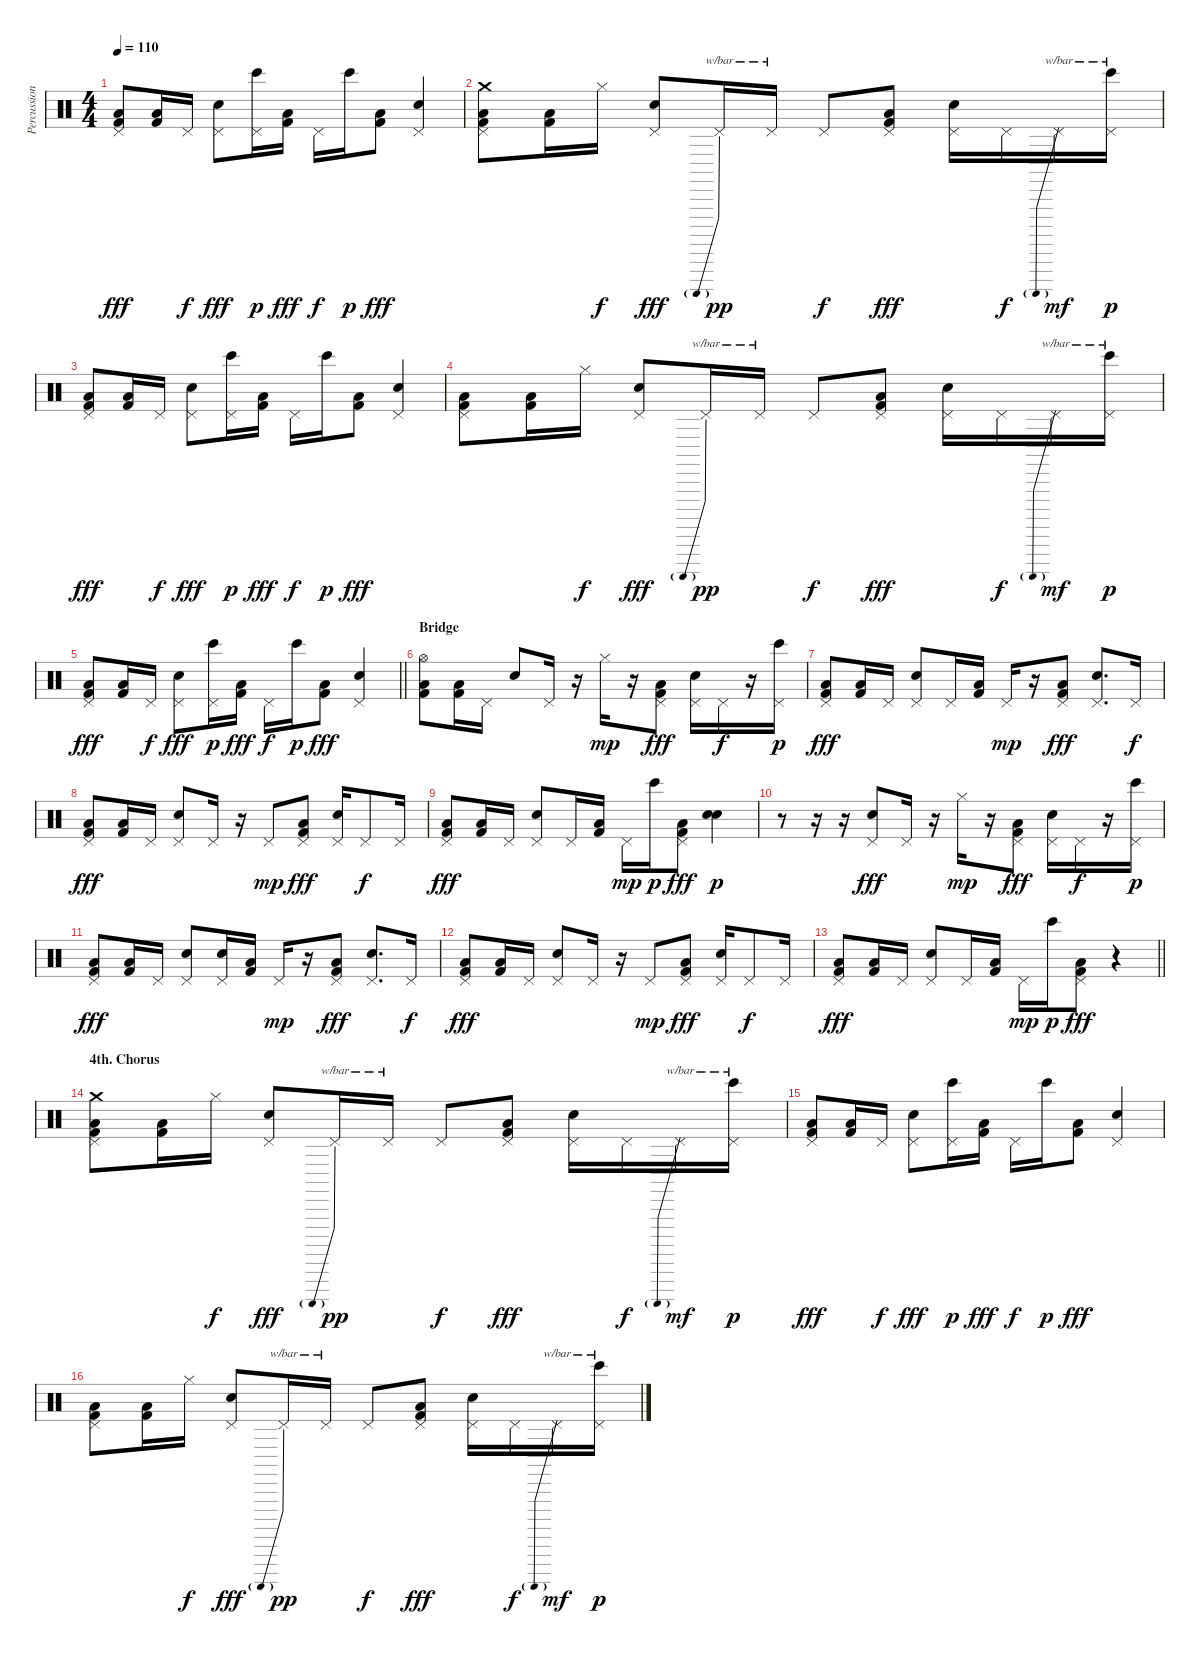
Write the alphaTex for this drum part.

\track ("Percussion" "Percussion") {instrument percussion}
\staff {score}
\articulation defaults
\ts (4 4)
\tempo 110
\clef neutral
\ks c
("Pedal Hi-Hat (hit)" "Kick (hit) 2" "Low Floor Tom (hit)"{be (hold 0 0 60 0)}).8{dy fff} ("Kick (hit) 2" "Low Floor Tom (hit)"{be (hold 0 0 60 0)}).16 "Pedal Hi-Hat (hit)".16{dy f} ("Pedal Hi-Hat (hit)" "Hand Clap (hit)").8{dy fff} ("Pedal Hi-Hat (hit)" "Bongo High (hit)").16{dy p} ("Kick (hit) 2" "Low Floor Tom (hit)"{be (hold 0 0 60 0)}).16{dy fff} "Pedal Hi-Hat (hit)".16{dy f} "Bongo High (hit)".16{dy p} ("Kick (hit) 2" "Low Floor Tom (hit)"{be (hold 0 0 60 0)}).8{dy fff} ("Pedal Hi-Hat (hit)" "Hand Clap (hit)").4 |
("Crash medium (hit)" "Pedal Hi-Hat (hit)" "Kick (hit) 2" "Low Floor Tom (hit)"{be (hold 0 0 60 0)}).8 ("Kick (hit) 2" "Low Floor Tom (hit)"{be (hold 0 0 60 0)}).16 "Hi-Hat (closed)".16{dy f} ("Pedal Hi-Hat (hit)" "Hand Clap (hit)").8{dy fff} "Pedal Hi-Hat (hit)".16{tbe (predive default 0 -24 60 -24) dy pp} "Pedal Hi-Hat (hit)".16{tbe (hold default 0 -14 60 -14)} "Pedal Hi-Hat (hit)".8{dy f} ("Pedal Hi-Hat (hit)" "Kick (hit) 2" "Low Floor Tom (hit)"{be (hold 0 0 60 0)}).8{dy fff} ("Pedal Hi-Hat (hit)" "Hand Clap (hit)").16 "Pedal Hi-Hat (hit)".16{dy f} "Pedal Hi-Hat (hit)".16{tbe (predive default 0 -24 60 -24) dy mf} ("Pedal Hi-Hat (hit)" "Bongo High (hit)").16{tbe (hold default 0 -14 60 -14) dy p} |
("Pedal Hi-Hat (hit)" "Kick (hit) 2" "Low Floor Tom (hit)"{be (hold 0 0 60 0)}).8{dy fff} ("Kick (hit) 2" "Low Floor Tom (hit)"{be (hold 0 0 60 0)}).16 "Pedal Hi-Hat (hit)".16{dy f} ("Pedal Hi-Hat (hit)" "Hand Clap (hit)").8{dy fff} ("Pedal Hi-Hat (hit)" "Bongo High (hit)").16{dy p} ("Kick (hit) 2" "Low Floor Tom (hit)"{be (hold 0 0 60 0)}).16{dy fff} "Pedal Hi-Hat (hit)".16{dy f} "Bongo High (hit)".16{dy p} ("Kick (hit) 2" "Low Floor Tom (hit)"{be (hold 0 0 60 0)}).8{dy fff} ("Pedal Hi-Hat (hit)" "Hand Clap (hit)").4 |
("Pedal Hi-Hat (hit)" "Kick (hit) 2" "Low Floor Tom (hit)"{be (hold 0 0 60 0)}).8 ("Kick (hit) 2" "Low Floor Tom (hit)"{be (hold 0 0 60 0)}).16 "Hi-Hat (closed)".16{dy f} ("Pedal Hi-Hat (hit)" "Hand Clap (hit)").8{dy fff} "Pedal Hi-Hat (hit)".16{tbe (predive default 0 -24 60 -24) dy pp} "Pedal Hi-Hat (hit)".16{tbe (hold default 0 -14 60 -14)} "Pedal Hi-Hat (hit)".8{dy f} ("Pedal Hi-Hat (hit)" "Kick (hit) 2" "Low Floor Tom (hit)"{be (hold 0 0 60 0)}).8{dy fff} ("Pedal Hi-Hat (hit)" "Hand Clap (hit)").16 "Pedal Hi-Hat (hit)".16{dy f} "Pedal Hi-Hat (hit)".16{tbe (predive default 0 -24 60 -24) dy mf} ("Pedal Hi-Hat (hit)" "Bongo High (hit)").16{tbe (hold default 0 -14 60 -14) dy p} |
\barLineRight lightlight
("Pedal Hi-Hat (hit)" "Kick (hit) 2" "Low Floor Tom (hit)"{be (hold 0 0 60 0)}).8{dy fff} ("Kick (hit) 2" "Low Floor Tom (hit)"{be (hold 0 0 60 0)}).16 "Pedal Hi-Hat (hit)".16{dy f} ("Pedal Hi-Hat (hit)" "Hand Clap (hit)").8{dy fff} ("Pedal Hi-Hat (hit)" "Bongo High (hit)").16{dy p} ("Kick (hit) 2" "Low Floor Tom (hit)"{be (hold 0 0 60 0)}).16{dy fff} "Pedal Hi-Hat (hit)".16{dy f} "Bongo High (hit)".16{dy p} ("Kick (hit) 2" "Low Floor Tom (hit)"{be (hold 0 0 60 0)}).8{dy fff} ("Pedal Hi-Hat (hit)" "Hand Clap (hit)").4 |
\section ("" "Bridge")
("Hi-Hat (open)" "Kick (hit) 2" "Low Floor Tom (hit)"{be (hold 0 0 60 0)}).8 ("Kick (hit) 2" "Low Floor Tom (hit)"{be (hold 0 0 60 0)}).16 "Pedal Hi-Hat (hit)".16 "Hand Clap (hit)".8 "Pedal Hi-Hat (hit)".16 r.16 "Hi-Hat (closed)".16{dy mp} r.16 ("Pedal Hi-Hat (hit)" "Kick (hit) 2" "Low Floor Tom (hit)"{be (hold 0 0 60 0)}).8{dy fff} ("Pedal Hi-Hat (hit)" "Hand Clap (hit)").16 "Pedal Hi-Hat (hit)".16{dy f} r.16 ("Pedal Hi-Hat (hit)" "Bongo High (hit)").16{dy p} |
("Pedal Hi-Hat (hit)" "Kick (hit) 2" "Low Floor Tom (hit)"{be (hold 0 0 60 0)}).8{dy fff} ("Kick (hit) 2" "Low Floor Tom (hit)"{be (hold 0 0 60 0)}).16 "Pedal Hi-Hat (hit)".16 ("Pedal Hi-Hat (hit)" "Hand Clap (hit)").8 "Pedal Hi-Hat (hit)".16 ("Kick (hit) 2" "Low Floor Tom (hit)"{be (hold 0 0 60 0)}).16 "Pedal Hi-Hat (hit)".16{dy mp} r.16 ("Pedal Hi-Hat (hit)" "Kick (hit) 2" "Low Floor Tom (hit)"{be (hold 0 0 60 0)}).8{dy fff} ("Pedal Hi-Hat (hit)" "Hand Clap (hit)").8{d} "Pedal Hi-Hat (hit)".16{dy f} |
("Pedal Hi-Hat (hit)" "Kick (hit) 2" "Low Floor Tom (hit)"{be (hold 0 0 60 0)}).8{dy fff} ("Kick (hit) 2" "Low Floor Tom (hit)"{be (hold 0 0 60 0)}).16 "Pedal Hi-Hat (hit)".16 ("Pedal Hi-Hat (hit)" "Hand Clap (hit)").8 "Pedal Hi-Hat (hit)".16 r.16 "Pedal Hi-Hat (hit)".8{dy mp} ("Pedal Hi-Hat (hit)" "Kick (hit) 2" "Low Floor Tom (hit)"{be (hold 0 0 60 0)}).8{dy fff} ("Pedal Hi-Hat (hit)" "Hand Clap (hit)").16 "Pedal Hi-Hat (hit)".8{dy f} "Pedal Hi-Hat (hit)".16 |
("Pedal Hi-Hat (hit)" "Kick (hit) 2" "Low Floor Tom (hit)"{be (hold 0 0 60 0)}).8{dy fff} ("Kick (hit) 2" "Low Floor Tom (hit)"{be (hold 0 0 60 0)}).16 "Pedal Hi-Hat (hit)".16 ("Pedal Hi-Hat (hit)" "Hand Clap (hit)").8 "Pedal Hi-Hat (hit)".16 ("Kick (hit) 2" "Low Floor Tom (hit)"{be (hold 0 0 60 0)}).16 "Pedal Hi-Hat (hit)".16{dy mp} "Bongo High (hit)".16{dy p} ("Pedal Hi-Hat (hit)" "Kick (hit) 2" "Low Floor Tom (hit)"{be (hold 0 0 60 0)}).8{dy fff} ("Hand Clap (hit)" "Electric Snare (hit)").4{dy p} |
r.8 r.16 r.16 ("Pedal Hi-Hat (hit)" "Hand Clap (hit)").8{dy fff} "Pedal Hi-Hat (hit)".16 r.16 "Hi-Hat (closed)".16{dy mp} r.16 ("Pedal Hi-Hat (hit)" "Kick (hit) 2" "Low Floor Tom (hit)"{be (hold 0 0 60 0)}).8{dy fff} ("Pedal Hi-Hat (hit)" "Hand Clap (hit)").16 "Pedal Hi-Hat (hit)".16{dy f} r.16 ("Pedal Hi-Hat (hit)" "Bongo High (hit)").16{dy p} |
("Pedal Hi-Hat (hit)" "Kick (hit) 2" "Low Floor Tom (hit)"{be (hold 0 0 60 0)}).8{dy fff} ("Kick (hit) 2" "Low Floor Tom (hit)"{be (hold 0 0 60 0)}).16 "Pedal Hi-Hat (hit)".16 ("Pedal Hi-Hat (hit)" "Hand Clap (hit)").8 ("Pedal Hi-Hat (hit)" "Hand Clap (hit)").16 ("Kick (hit) 2" "Low Floor Tom (hit)"{be (hold 0 0 60 0)}).16 "Pedal Hi-Hat (hit)".16{dy mp} r.16 ("Pedal Hi-Hat (hit)" "Kick (hit) 2" "Low Floor Tom (hit)"{be (hold 0 0 60 0)}).8{dy fff} ("Pedal Hi-Hat (hit)" "Hand Clap (hit)").8{d} "Pedal Hi-Hat (hit)".16{dy f} |
("Pedal Hi-Hat (hit)" "Kick (hit) 2" "Low Floor Tom (hit)"{be (hold 0 0 60 0)}).8{dy fff} ("Kick (hit) 2" "Low Floor Tom (hit)"{be (hold 0 0 60 0)}).16 "Pedal Hi-Hat (hit)".16 ("Pedal Hi-Hat (hit)" "Hand Clap (hit)").8 "Pedal Hi-Hat (hit)".16 r.16 "Pedal Hi-Hat (hit)".8{dy mp} ("Pedal Hi-Hat (hit)" "Kick (hit) 2" "Low Floor Tom (hit)"{be (hold 0 0 60 0)}).8{dy fff} ("Pedal Hi-Hat (hit)" "Hand Clap (hit)").16 "Pedal Hi-Hat (hit)".8{dy f} "Pedal Hi-Hat (hit)".16 |
\barLineRight lightlight
("Pedal Hi-Hat (hit)" "Kick (hit) 2" "Low Floor Tom (hit)"{be (hold 0 0 60 0)}).8{dy fff} ("Kick (hit) 2" "Low Floor Tom (hit)"{be (hold 0 0 60 0)}).16 "Pedal Hi-Hat (hit)".16 ("Pedal Hi-Hat (hit)" "Hand Clap (hit)").8 "Pedal Hi-Hat (hit)".16 ("Kick (hit) 2" "Low Floor Tom (hit)"{be (hold 0 0 60 0)}).16 "Pedal Hi-Hat (hit)".16{dy mp} "Bongo High (hit)".16{dy p} ("Pedal Hi-Hat (hit)" "Kick (hit) 2" "Low Floor Tom (hit)"{be (hold 0 0 60 0)}).8{dy fff} r.4 |
\section ("" "4th. Chorus")
("Crash medium (hit)" "Pedal Hi-Hat (hit)" "Kick (hit) 2" "Low Floor Tom (hit)"{be (hold 0 0 60 0)}).8 ("Kick (hit) 2" "Low Floor Tom (hit)"{be (hold 0 0 60 0)}).16 "Hi-Hat (closed)".16{dy f} ("Pedal Hi-Hat (hit)" "Hand Clap (hit)").8{dy fff} "Pedal Hi-Hat (hit)".16{tbe (predive default 0 -24 60 -24) dy pp} "Pedal Hi-Hat (hit)".16{tbe (hold default 0 -14 60 -14)} "Pedal Hi-Hat (hit)".8{dy f} ("Pedal Hi-Hat (hit)" "Kick (hit) 2" "Low Floor Tom (hit)"{be (hold 0 0 60 0)}).8{dy fff} ("Pedal Hi-Hat (hit)" "Hand Clap (hit)").16 "Pedal Hi-Hat (hit)".16{dy f} "Pedal Hi-Hat (hit)".16{tbe (predive default 0 -24 60 -24) dy mf} ("Pedal Hi-Hat (hit)" "Bongo High (hit)").16{tbe (hold default 0 -14 60 -14) dy p} |
("Pedal Hi-Hat (hit)" "Kick (hit) 2" "Low Floor Tom (hit)"{be (hold 0 0 60 0)}).8{dy fff} ("Kick (hit) 2" "Low Floor Tom (hit)"{be (hold 0 0 60 0)}).16 "Pedal Hi-Hat (hit)".16{dy f} ("Pedal Hi-Hat (hit)" "Hand Clap (hit)").8{dy fff} ("Pedal Hi-Hat (hit)" "Bongo High (hit)").16{dy p} ("Kick (hit) 2" "Low Floor Tom (hit)"{be (hold 0 0 60 0)}).16{dy fff} "Pedal Hi-Hat (hit)".16{dy f} "Bongo High (hit)".16{dy p} ("Kick (hit) 2" "Low Floor Tom (hit)"{be (hold 0 0 60 0)}).8{dy fff} ("Pedal Hi-Hat (hit)" "Hand Clap (hit)").4 |
("Pedal Hi-Hat (hit)" "Kick (hit) 2" "Low Floor Tom (hit)"{be (hold 0 0 60 0)}).8 ("Kick (hit) 2" "Low Floor Tom (hit)"{be (hold 0 0 60 0)}).16 "Hi-Hat (closed)".16{dy f} ("Pedal Hi-Hat (hit)" "Hand Clap (hit)").8{dy fff} "Pedal Hi-Hat (hit)".16{tbe (predive default 0 -24 60 -24) dy pp} "Pedal Hi-Hat (hit)".16{tbe (hold default 0 -14 60 -14)} "Pedal Hi-Hat (hit)".8{dy f} ("Pedal Hi-Hat (hit)" "Kick (hit) 2" "Low Floor Tom (hit)"{be (hold 0 0 60 0)}).8{dy fff} ("Pedal Hi-Hat (hit)" "Hand Clap (hit)").16 "Pedal Hi-Hat (hit)".16{dy f} "Pedal Hi-Hat (hit)".16{tbe (predive default 0 -24 60 -24) dy mf} ("Pedal Hi-Hat (hit)" "Bongo High (hit)").16{tbe (hold default 0 -14 60 -14) dy p}
